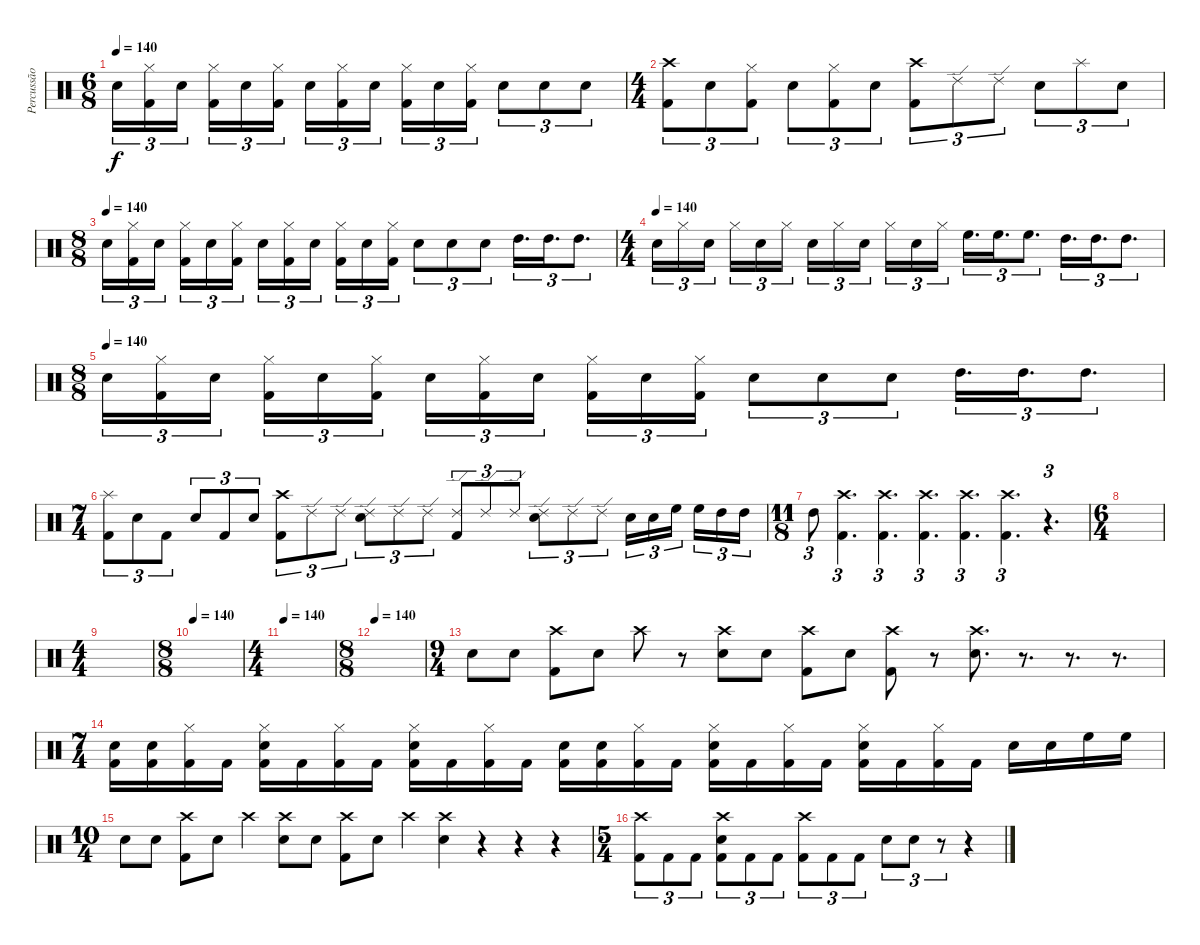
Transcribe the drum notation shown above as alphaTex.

\track ("Percussão" "Percussão") {instrument percussion}
\staff {score}
\articulation defaults
\ts (6 8)
\tempo 140
\clef neutral
\ks c "Electric Snare (hit)".16{tu (3 2) dy f}
("Hi-Hat (closed)" "Kick (hit) 2").16{tu (3 2)} "Electric Snare (hit)".16{tu (3 2) beam splitsecondary} ("Hi-Hat (closed)" "Kick (hit) 2").16{tu (3 2)} "Electric Snare (hit)".16{tu (3 2)} ("Hi-Hat (closed)" "Kick (hit) 2").16{tu (3 2) beam splitsecondary} "Electric Snare (hit)".16{tu (3 2)} ("Hi-Hat (closed)" "Kick (hit) 2").16{tu (3 2)} "Electric Snare (hit)".16{tu (3 2)} ("Hi-Hat (closed)" "Kick (hit) 2").16{tu (3 2)} "Electric Snare (hit)".16{tu (3 2)} ("Hi-Hat (closed)" "Kick (hit) 2").16{tu (3 2)} "Electric Snare (hit)".8{tu (3 2)} "Electric Snare (hit)".8{tu (3 2)} "Electric Snare (hit)".8{tu (3 2)} |
\ts (4 4)
("Crash high (hit)" "Kick (hit) 2").8{tu (3 2)} "Electric Snare (hit)".8{tu (3 2)} ("Hi-Hat (closed)" "Kick (hit) 2").8{tu (3 2)} "Electric Snare (hit)".8{tu (3 2)} ("Hi-Hat (closed)" "Kick (hit) 2").8{tu (3 2)} "Electric Snare (hit)".8{tu (3 2)} ("Crash high (hit)" "Kick (hit) 2").8{tu (3 2)} "Ride (edge) 2".8{tu (3 2)} "Ride (edge) 2".8{tu (3 2)} "Electric Snare (hit)".8{tu (3 2)} "Splash (hit)".8{tu (3 2)} "Electric Snare (hit)".8{tu (3 2)} |
\ts (8 8)
\tempo (140)
"Electric Snare (hit)".16{tu (3 2)} ("Kick (hit) 2" "Hi-Hat (closed)").16{tu (3 2)} "Electric Snare (hit)".16{tu (3 2)} ("Kick (hit) 2" "Hi-Hat (closed)").16{tu (3 2)} "Electric Snare (hit)".16{tu (3 2)} ("Kick (hit) 2" "Hi-Hat (closed)").16{tu (3 2)} "Electric Snare (hit)".16{tu (3 2)} ("Kick (hit) 2" "Hi-Hat (closed)").16{tu (3 2)} "Electric Snare (hit)".16{tu (3 2)} ("Kick (hit) 2" "Hi-Hat (closed)").16{tu (3 2)} "Electric Snare (hit)".16{tu (3 2)} ("Kick (hit) 2" "Hi-Hat (closed)").16{tu (3 2)} "Electric Snare (hit)".8{tu (3 2)} "Electric Snare (hit)".8{tu (3 2)} "Electric Snare (hit)".8{tu (3 2)} "High Tom (hit)".16{d tu (3 2)} "High Tom (hit)".16{d tu (3 2)} "High Tom (hit)".8{d tu (3 2)} |
\ts (4 4)
\tempo (140)
"Electric Snare (hit)".16{tu (3 2)} "Hi-Hat (closed)".16{tu (3 2)} "Electric Snare (hit)".16{tu (3 2) beam splitsecondary} "Hi-Hat (closed)".16{tu (3 2)} "Electric Snare (hit)".16{tu (3 2)} "Hi-Hat (closed)".16{tu (3 2)} "Electric Snare (hit)".16{tu (3 2)} "Hi-Hat (closed)".16{tu (3 2)} "Electric Snare (hit)".16{tu (3 2) beam splitsecondary} "Hi-Hat (closed)".16{tu (3 2)} "Electric Snare (hit)".16{tu (3 2)} "Hi-Hat (closed)".16{tu (3 2)} "High Floor Tom (hit)".16{d tu (3 2)} "High Floor Tom (hit)".16{d tu (3 2)} "High Floor Tom (hit)".8{d tu (3 2)} "High Tom (hit)".16{d tu (3 2)} "High Tom (hit)".16{d tu (3 2)} "High Tom (hit)".8{d tu (3 2)} |
\ts (8 8)
\tempo (140)
"Electric Snare (hit)".16{tu (3 2)} ("Kick (hit) 2" "Hi-Hat (closed)").16{tu (3 2)} "Electric Snare (hit)".16{tu (3 2)} ("Kick (hit) 2" "Hi-Hat (closed)").16{tu (3 2)} "Electric Snare (hit)".16{tu (3 2)} ("Kick (hit) 2" "Hi-Hat (closed)").16{tu (3 2)} "Electric Snare (hit)".16{tu (3 2)} ("Kick (hit) 2" "Hi-Hat (closed)").16{tu (3 2)} "Electric Snare (hit)".16{tu (3 2)} ("Kick (hit) 2" "Hi-Hat (closed)").16{tu (3 2)} "Electric Snare (hit)".16{tu (3 2)} ("Kick (hit) 2" "Hi-Hat (closed)").16{tu (3 2)} "Electric Snare (hit)".8{tu (3 2)} "Electric Snare (hit)".8{tu (3 2)} "Electric Snare (hit)".8{tu (3 2)} "High Tom (hit)".16{d tu (3 2)} "High Tom (hit)".16{d tu (3 2)} "High Tom (hit)".8{d tu (3 2)} |
\ts (7 4)
("Splash (hit)" "Kick (hit) 2").8{tu (3 2)} "Electric Snare (hit)".8{tu (3 2)} "Kick (hit) 2".8{tu (3 2)} "Electric Snare (hit)".8{tu (3 2)} "Kick (hit) 2".8{tu (3 2)} "Electric Snare (hit)".8{tu (3 2)} ("Crash high (hit)" "Kick (hit) 2").8{tu (3 2)} "Ride (edge) 2".8{tu (3 2)} "Ride (edge) 2".8{tu (3 2)} ("Ride (edge) 2" "Electric Snare (hit)").8{tu (3 2)} "Ride (edge) 2".8{tu (3 2)} "Ride (edge) 2".8{tu (3 2)} ("Ride (edge) 2" "Kick (hit) 2").8{tu (3 2)} "Ride (edge) 2".8{tu (3 2)} "Ride (edge) 2".8{tu (3 2)} ("Ride (edge) 2" "Electric Snare (hit)").8{tu (3 2)} "Ride (edge) 2".8{tu (3 2)} "Ride (edge) 2".8{tu (3 2)} "Electric Snare (hit)".16{tu (3 2)} "Electric Snare (hit)".16{tu (3 2)} "High Floor Tom (hit)".16{tu (3 2) beam splitsecondary} "High Floor Tom (hit)".16{tu (3 2)} "High Tom (hit)".16{tu (3 2)} "High Tom (hit)".16{tu (3 2)} |
\ts (11 8)
"High Tom (hit)".8{tu (3 2)} ("Crash high (hit)" "Kick (hit) 2").4{d tu (3 2)} ("Crash high (hit)" "Kick (hit) 2").4{d tu (3 2)} ("Crash high (hit)" "Kick (hit) 2").4{d tu (3 2)} ("Crash high (hit)" "Kick (hit) 2").4{d tu (3 2)} ("Crash high (hit)" "Kick (hit) 2").4{d tu (3 2)} r.4{d tu (3 2)} |
\ts (6 4)
|
\ts (4 4)
|
\ts (8 8)
\tempo 140
|
\ts (4 4)
\tempo 140
|
\ts (8 8)
\tempo 140
|
\ts (9 4)
"Electric Snare (hit)".8 "Electric Snare (hit)".8 ("Crash high (hit)" "Kick (hit) 2").8 "Electric Snare (hit)".8 "Crash high (hit)".8 r.8 ("Crash high (hit)" "Electric Snare (hit)").8 "Electric Snare (hit)".8 ("Crash high (hit)" "Kick (hit) 2").8 "Electric Snare (hit)".8 ("Crash high (hit)" "Kick (hit) 2").8 r.8 ("Crash high (hit)" "Electric Snare (hit)").8{d} r.8{d} r.8{d} r.8{d} |
\ts (7 4)
("Electric Snare (hit)" "Kick (hit) 2").16 ("Electric Snare (hit)" "Kick (hit) 2").16 ("Hi-Hat (closed)" "Kick (hit) 2").16 "Kick (hit) 2".16 ("Hi-Hat (closed)" "Electric Snare (hit)" "Kick (hit) 2").16 "Kick (hit) 2".16 ("Hi-Hat (closed)" "Kick (hit) 2").16 "Kick (hit) 2".16 ("Hi-Hat (closed)" "Electric Snare (hit)" "Kick (hit) 2").16 "Kick (hit) 2".16 ("Hi-Hat (closed)" "Kick (hit) 2").16 "Kick (hit) 2".16 ("Electric Snare (hit)" "Kick (hit) 2").16 ("Electric Snare (hit)" "Kick (hit) 2").16 ("Hi-Hat (closed)" "Kick (hit) 2").16 "Kick (hit) 2".16 ("Hi-Hat (closed)" "Electric Snare (hit)" "Kick (hit) 2").16 "Kick (hit) 2".16 ("Hi-Hat (closed)" "Kick (hit) 2").16 "Kick (hit) 2".16 ("Hi-Hat (closed)" "Electric Snare (hit)" "Kick (hit) 2").16 "Kick (hit) 2".16 ("Hi-Hat (closed)" "Kick (hit) 2").16 "Kick (hit) 2".16 "Electric Snare (hit)".16 "Electric Snare (hit)".16 "High Floor Tom (hit)".16 "High Floor Tom (hit)".16 |
\ts (10 4)
"Electric Snare (hit)".8 "Electric Snare (hit)".8 ("Crash high (hit)" "Kick (hit) 2").8 "Electric Snare (hit)".8 "Crash high (hit)".4 ("Crash high (hit)" "Electric Snare (hit)").8 "Electric Snare (hit)".8 ("Crash high (hit)" "Kick (hit) 2").8 "Electric Snare (hit)".8 "Crash high (hit)".4 ("Crash high (hit)" "Electric Snare (hit)").4 r.4 r.4 r.4 |
\ts (5 4)
("Crash high (hit)" "Kick (hit) 2").8{tu (3 2)} "Kick (hit) 2".8{tu (3 2)} "Kick (hit) 2".8{tu (3 2)} ("Crash high (hit)" "Electric Snare (hit)" "Kick (hit) 2").8{tu (3 2)} "Kick (hit) 2".8{tu (3 2)} "Kick (hit) 2".8{tu (3 2)} ("Crash high (hit)" "Kick (hit) 2").8{tu (3 2)} "Kick (hit) 2".8{tu (3 2)} "Kick (hit) 2".8{tu (3 2)} "Electric Snare (hit)".8{tu (3 2)} "Electric Snare (hit)".8{tu (3 2)} r.8{tu (3 2)} r.4
